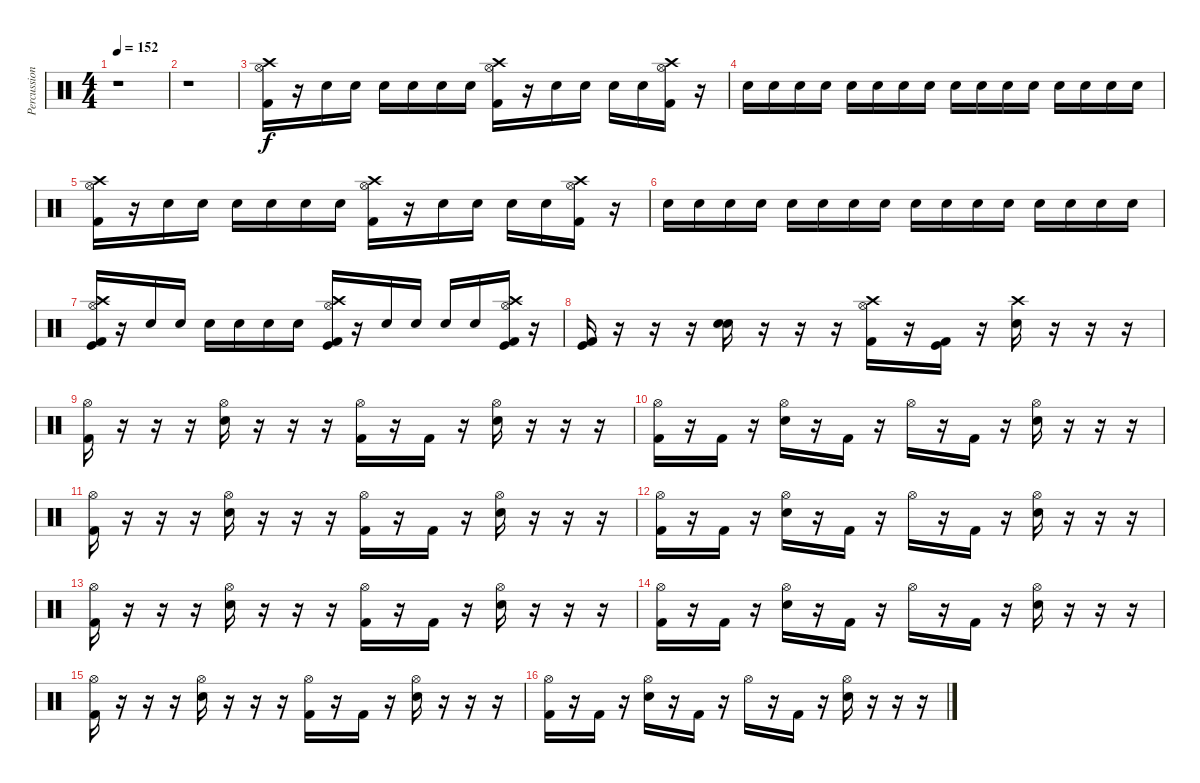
\track ("Percussions" "Percussion") {instrument percussion}
\staff {score}
\articulation defaults
\ts (4 4)
\tempo 152
\clef neutral
\ks c
r.1{dy f} |
r.1 |
("Kick (hit) 2" "Hi-Hat (open)" "Crash high (hit)").16 r.16 "Electric Snare (hit)".16 "Electric Snare (hit)".16 "Electric Snare (hit)".16 "Electric Snare (hit)".16 "Electric Snare (hit)".16 "Electric Snare (hit)".16 ("Kick (hit) 2" "Hi-Hat (open)" "Crash high (hit)").16 r.16 "Electric Snare (hit)".16 "Electric Snare (hit)".16 "Electric Snare (hit)".16 "Electric Snare (hit)".16 ("Kick (hit) 2" "Hi-Hat (open)" "Crash high (hit)").16 r.16 |
"Electric Snare (hit)".16 "Electric Snare (hit)".16 "Electric Snare (hit)".16 "Electric Snare (hit)".16 "Electric Snare (hit)".16 "Electric Snare (hit)".16 "Electric Snare (hit)".16 "Electric Snare (hit)".16 "Electric Snare (hit)".16 "Electric Snare (hit)".16 "Electric Snare (hit)".16 "Electric Snare (hit)".16 "Electric Snare (hit)".16 "Electric Snare (hit)".16 "Electric Snare (hit)".16 "Electric Snare (hit)".16 |
("Kick (hit) 2" "Hi-Hat (open)" "Crash high (hit)").16 r.16 "Electric Snare (hit)".16 "Electric Snare (hit)".16 "Electric Snare (hit)".16 "Electric Snare (hit)".16 "Electric Snare (hit)".16 "Electric Snare (hit)".16 ("Kick (hit) 2" "Hi-Hat (open)" "Crash high (hit)").16 r.16 "Electric Snare (hit)".16 "Electric Snare (hit)".16 "Electric Snare (hit)".16 "Electric Snare (hit)".16 ("Kick (hit) 2" "Hi-Hat (open)" "Crash high (hit)").16 r.16 |
"Electric Snare (hit)".16 "Electric Snare (hit)".16 "Electric Snare (hit)".16 "Electric Snare (hit)".16 "Electric Snare (hit)".16 "Electric Snare (hit)".16 "Electric Snare (hit)".16 "Electric Snare (hit)".16 "Electric Snare (hit)".16 "Electric Snare (hit)".16 "Electric Snare (hit)".16 "Electric Snare (hit)".16 "Electric Snare (hit)".16 "Electric Snare (hit)".16 "Electric Snare (hit)".16 "Electric Snare (hit)".16 |
("Kick (hit) 2" "Kick (hit)" "Hi-Hat (open)" "Crash high (hit)").16 r.16 "Electric Snare (hit)".16 "Electric Snare (hit)".16 "Electric Snare (hit)".16 "Electric Snare (hit)".16 "Electric Snare (hit)".16 "Electric Snare (hit)".16 ("Kick (hit) 2" "Kick (hit)" "Hi-Hat (open)" "Crash high (hit)").16 r.16 "Electric Snare (hit)".16 "Electric Snare (hit)".16 "Electric Snare (hit)".16 "Electric Snare (hit)".16 ("Kick (hit) 2" "Kick (hit)" "Hi-Hat (open)" "Crash high (hit)").16 r.16 |
("Kick (hit) 2" "Kick (hit)").16 r.16 r.16 r.16 ("Snare (hit) 2" "Electric Snare (hit)").16 r.16 r.16 r.16 ("Kick (hit) 2" "Hi-Hat (open)" "Crash high (hit)").16 r.16 ("Kick (hit) 2" "Kick (hit)").16 r.16 ("Electric Snare (hit)" "Crash high (hit)").16 r.16 r.16 r.16 |
("Kick (hit) 2" "Hi-Hat (open)").16 r.16 r.16 r.16 ("Electric Snare (hit)" "Hi-Hat (open)").16 r.16 r.16 r.16 ("Kick (hit) 2" "Hi-Hat (open)").16 r.16 "Kick (hit) 2".16 r.16 ("Electric Snare (hit)" "Hi-Hat (open)").16 r.16 r.16 r.16 |
("Kick (hit) 2" "Hi-Hat (open)").16 r.16 "Kick (hit) 2".16 r.16 ("Electric Snare (hit)" "Hi-Hat (open)").16 r.16 "Kick (hit) 2".16 r.16 "Hi-Hat (open)".16 r.16 "Kick (hit) 2".16 r.16 ("Electric Snare (hit)" "Hi-Hat (open)").16 r.16 r.16 r.16 |
("Kick (hit) 2" "Hi-Hat (open)").16 r.16 r.16 r.16 ("Electric Snare (hit)" "Hi-Hat (open)").16 r.16 r.16 r.16 ("Kick (hit) 2" "Hi-Hat (open)").16 r.16 "Kick (hit) 2".16 r.16 ("Electric Snare (hit)" "Hi-Hat (open)").16 r.16 r.16 r.16 |
("Kick (hit) 2" "Hi-Hat (open)").16 r.16 "Kick (hit) 2".16 r.16 ("Electric Snare (hit)" "Hi-Hat (open)").16 r.16 "Kick (hit) 2".16 r.16 "Hi-Hat (open)".16 r.16 "Kick (hit) 2".16 r.16 ("Electric Snare (hit)" "Hi-Hat (open)").16 r.16 r.16 r.16 |
("Kick (hit) 2" "Hi-Hat (open)").16 r.16 r.16 r.16 ("Electric Snare (hit)" "Hi-Hat (open)").16 r.16 r.16 r.16 ("Kick (hit) 2" "Hi-Hat (open)").16 r.16 "Kick (hit) 2".16 r.16 ("Electric Snare (hit)" "Hi-Hat (open)").16 r.16 r.16 r.16 |
("Kick (hit) 2" "Hi-Hat (open)").16 r.16 "Kick (hit) 2".16 r.16 ("Electric Snare (hit)" "Hi-Hat (open)").16 r.16 "Kick (hit) 2".16 r.16 "Hi-Hat (open)".16 r.16 "Kick (hit) 2".16 r.16 ("Electric Snare (hit)" "Hi-Hat (open)").16 r.16 r.16 r.16 |
("Kick (hit) 2" "Hi-Hat (open)").16 r.16 r.16 r.16 ("Electric Snare (hit)" "Hi-Hat (open)").16 r.16 r.16 r.16 ("Kick (hit) 2" "Hi-Hat (open)").16 r.16 "Kick (hit) 2".16 r.16 ("Electric Snare (hit)" "Hi-Hat (open)").16 r.16 r.16 r.16 |
("Kick (hit) 2" "Hi-Hat (open)").16 r.16 "Kick (hit) 2".16 r.16 ("Electric Snare (hit)" "Hi-Hat (open)").16 r.16 "Kick (hit) 2".16 r.16 "Hi-Hat (open)".16 r.16 "Kick (hit) 2".16 r.16 ("Electric Snare (hit)" "Hi-Hat (open)").16 r.16 r.16 r.16
